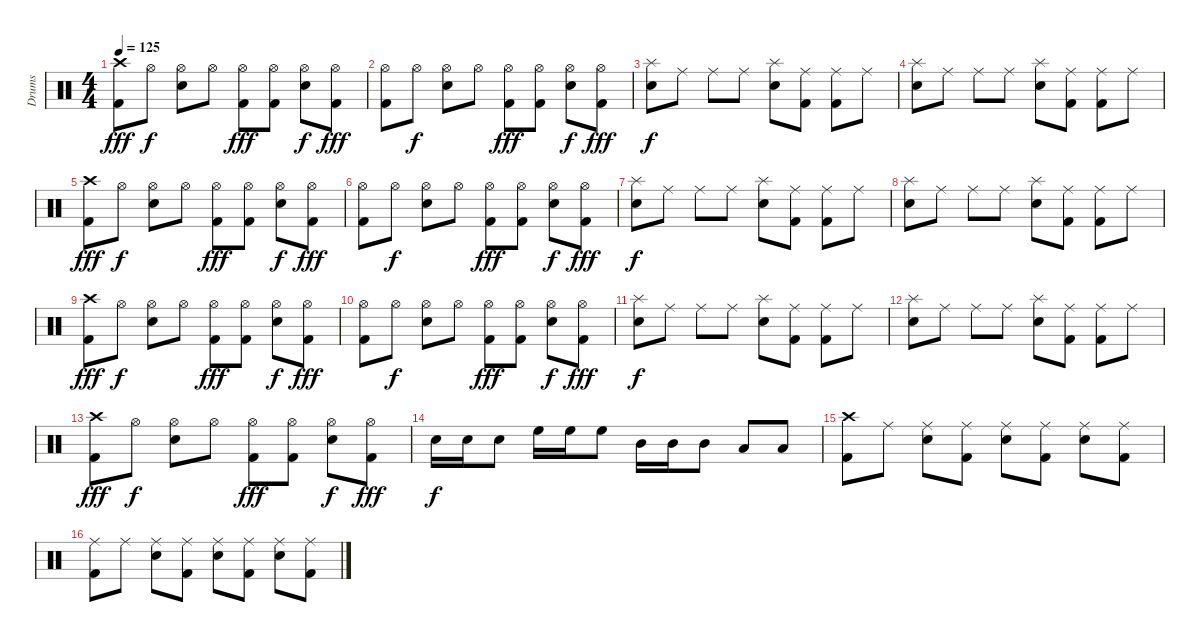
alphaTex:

\track ("Drums" "Drums") {instrument percussion}
\staff {score}
\articulation defaults
\ts (4 4)
\tempo 125
\clef neutral
\ks c
("Crash high (hit)" "Kick (hit) 2").8{dy fff} "Hi-Hat (open)".8{dy f} ("Hi-Hat (open)" "Snare (hit) 2").8 "Hi-Hat (open)".8 ("Hi-Hat (open)" "Kick (hit) 2").8{dy fff} ("Hi-Hat (open)" "Kick (hit) 2").8 ("Hi-Hat (open)" "Snare (hit) 2").8{dy f} ("Hi-Hat (open)" "Kick (hit) 2").8{dy fff} |
("Hi-Hat (open)" "Kick (hit) 2").8 "Hi-Hat (open)".8{dy f} ("Hi-Hat (open)" "Snare (hit) 2").8 "Hi-Hat (open)".8 ("Hi-Hat (open)" "Kick (hit) 2").8{dy fff} ("Hi-Hat (open)" "Kick (hit) 2").8 ("Hi-Hat (open)" "Snare (hit) 2").8{dy f} ("Hi-Hat (open)" "Kick (hit) 2").8{dy fff} |
("Splash (hit)" "Snare (hit) 2").8{dy f} "Ride (middle)".8 "Ride (middle)".8 "Ride (middle)".8 ("Splash (hit)" "Snare (hit) 2").8 ("Ride (middle)" "Kick (hit) 2").8 ("Ride (middle)" "Kick (hit) 2").8 "Ride (middle)".8 |
("Splash (hit)" "Snare (hit) 2").8 "Ride (middle)".8 "Ride (middle)".8 "Ride (middle)".8 ("Splash (hit)" "Snare (hit) 2").8 ("Ride (middle)" "Kick (hit) 2").8 ("Ride (middle)" "Kick (hit) 2").8 "Ride (middle)".8 |
("Crash high (hit)" "Kick (hit) 2").8{dy fff} "Hi-Hat (open)".8{dy f} ("Hi-Hat (open)" "Snare (hit) 2").8 "Hi-Hat (open)".8 ("Hi-Hat (open)" "Kick (hit) 2").8{dy fff} ("Hi-Hat (open)" "Kick (hit) 2").8 ("Hi-Hat (open)" "Snare (hit) 2").8{dy f} ("Hi-Hat (open)" "Kick (hit) 2").8{dy fff} |
("Hi-Hat (open)" "Kick (hit) 2").8 "Hi-Hat (open)".8{dy f} ("Hi-Hat (open)" "Snare (hit) 2").8 "Hi-Hat (open)".8 ("Hi-Hat (open)" "Kick (hit) 2").8{dy fff} ("Hi-Hat (open)" "Kick (hit) 2").8 ("Hi-Hat (open)" "Snare (hit) 2").8{dy f} ("Hi-Hat (open)" "Kick (hit) 2").8{dy fff} |
("Splash (hit)" "Snare (hit) 2").8{dy f} "Ride (middle)".8 "Ride (middle)".8 "Ride (middle)".8 ("Splash (hit)" "Snare (hit) 2").8 ("Ride (middle)" "Kick (hit) 2").8 ("Ride (middle)" "Kick (hit) 2").8 "Ride (middle)".8 |
("Splash (hit)" "Snare (hit) 2").8 "Ride (middle)".8 "Ride (middle)".8 "Ride (middle)".8 ("Splash (hit)" "Snare (hit) 2").8 ("Ride (middle)" "Kick (hit) 2").8 ("Ride (middle)" "Kick (hit) 2").8 "Ride (middle)".8 |
("Crash high (hit)" "Kick (hit) 2").8{dy fff} "Hi-Hat (open)".8{dy f} ("Hi-Hat (open)" "Snare (hit) 2").8 "Hi-Hat (open)".8 ("Hi-Hat (open)" "Kick (hit) 2").8{dy fff} ("Hi-Hat (open)" "Kick (hit) 2").8 ("Hi-Hat (open)" "Snare (hit) 2").8{dy f} ("Hi-Hat (open)" "Kick (hit) 2").8{dy fff} |
("Hi-Hat (open)" "Kick (hit) 2").8 "Hi-Hat (open)".8{dy f} ("Hi-Hat (open)" "Snare (hit) 2").8 "Hi-Hat (open)".8 ("Hi-Hat (open)" "Kick (hit) 2").8{dy fff} ("Hi-Hat (open)" "Kick (hit) 2").8 ("Hi-Hat (open)" "Snare (hit) 2").8{dy f} ("Hi-Hat (open)" "Kick (hit) 2").8{dy fff} |
("Splash (hit)" "Snare (hit) 2").8{dy f} "Ride (middle)".8 "Ride (middle)".8 "Ride (middle)".8 ("Splash (hit)" "Snare (hit) 2").8 ("Ride (middle)" "Kick (hit) 2").8 ("Ride (middle)" "Kick (hit) 2").8 "Ride (middle)".8 |
("Splash (hit)" "Snare (hit) 2").8 "Ride (middle)".8 "Ride (middle)".8 "Ride (middle)".8 ("Splash (hit)" "Snare (hit) 2").8 ("Ride (middle)" "Kick (hit) 2").8 ("Ride (middle)" "Kick (hit) 2").8 "Ride (middle)".8 |
("Crash high (hit)" "Kick (hit) 2").8{dy fff} "Hi-Hat (open)".8{dy f} ("Hi-Hat (open)" "Snare (hit) 2").8 "Hi-Hat (open)".8 ("Hi-Hat (open)" "Kick (hit) 2").8{dy fff} ("Hi-Hat (open)" "Kick (hit) 2").8 ("Hi-Hat (open)" "Snare (hit) 2").8{dy f} ("Hi-Hat (open)" "Kick (hit) 2").8{dy fff} |
"Snare (hit) 2".16{dy f} "Snare (hit) 2".16 "Snare (hit) 2".8 "High Floor Tom (hit)".16 "High Floor Tom (hit)".16 "High Floor Tom (hit)".8 "Mid Tom (hit)".16 "Mid Tom (hit)".16 "Mid Tom (hit)".8 "Low Tom (hit)".8 "Low Floor Tom (hit)".8 |
("Crash high (hit)" "Kick (hit) 2").8 "Ride (middle)".8 ("Ride (middle)" "Snare (hit) 2").8 ("Ride (middle)" "Kick (hit) 2").8 ("Ride (middle)" "Snare (hit) 2").8 ("Ride (middle)" "Kick (hit) 2").8 ("Ride (middle)" "Snare (hit) 2").8 ("Ride (middle)" "Kick (hit) 2").8 |
("Ride (middle)" "Kick (hit) 2").8 "Ride (middle)".8 ("Ride (middle)" "Snare (hit) 2").8 ("Ride (middle)" "Kick (hit) 2").8 ("Ride (middle)" "Snare (hit) 2").8 ("Ride (middle)" "Kick (hit) 2").8 ("Ride (middle)" "Snare (hit) 2").8 ("Ride (middle)" "Kick (hit) 2").8
